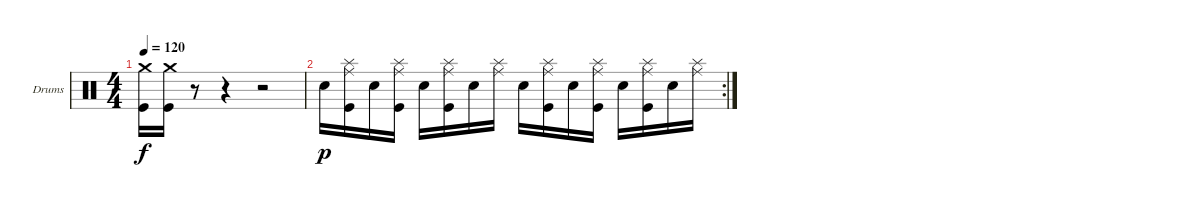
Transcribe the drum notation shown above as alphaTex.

\bracketExtendMode groupsimilarinstruments
\firstSystemTrackNameOrientation horizontal
\otherSystemsTrackNameOrientation horizontal
\track ("Drumkit" "Drums") {instrument percussion}
\staff {score}
\articulation defaults
\ts (4 4)
\tempo 120
\clef neutral
\ks c
("Crash medium (hit)" "Kick (hit)").16{dy f} ("Crash medium (hit)" "Kick (hit)").16 r.8 r.4 r.2 |
\rc 2 "Snare (hit) 2".16{dy p}
("Ride (middle)" "Kick (hit)" "Splash (hit)").16 "Snare (hit) 2".16 ("Ride (middle)" "Kick (hit)" "Splash (hit)").16 "Snare (hit) 2".16 ("Ride (middle)" "Kick (hit)" "Splash (hit)").16 "Snare (hit) 2".16 ("Ride (middle)" "Splash (hit)").16 "Snare (hit) 2".16 ("Ride (middle)" "Kick (hit)" "Splash (hit)").16 "Snare (hit) 2".16 ("Ride (middle)" "Kick (hit)" "Splash (hit)").16 "Snare (hit) 2".16 ("Ride (middle)" "Kick (hit)" "Splash (hit)").16 "Snare (hit) 2".16 ("Ride (middle)" "Splash (hit)").16
